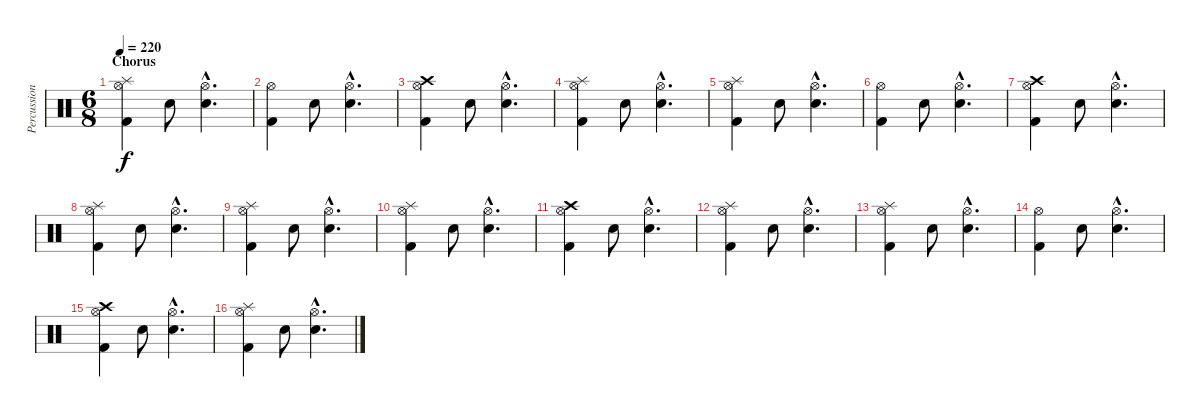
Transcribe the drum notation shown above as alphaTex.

\track ("Percussion" "Percussion") {instrument percussion}
\staff {score}
\articulation defaults
\ts (6 8)
\section ("" "Chorus")
\tempo 220
\clef neutral
\ks c
("Hi-Hat (open)" "Splash (hit)" "Kick (hit) 2").4{dy f} "Snare (hit) 2".8 ("Hi-Hat (open)"{hac} "Electric Snare (hit)"{hac}).4{d} |
("Hi-Hat (open)" "Kick (hit) 2").4 "Snare (hit) 2".8 ("Hi-Hat (open)"{hac} "Electric Snare (hit)"{hac}).4{d} |
("Hi-Hat (open)" "Crash high (hit)" "Kick (hit) 2").4 "Snare (hit) 2".8 ("Hi-Hat (open)"{hac} "Electric Snare (hit)"{hac}).4{d} |
("Hi-Hat (open)" "Splash (hit)" "Kick (hit) 2").4 "Snare (hit) 2".8 ("Hi-Hat (open)"{hac} "Electric Snare (hit)"{hac}).4{d} |
("Hi-Hat (open)" "Splash (hit)" "Kick (hit) 2").4 "Snare (hit) 2".8 ("Hi-Hat (open)"{hac} "Electric Snare (hit)"{hac}).4{d} |
("Hi-Hat (open)" "Kick (hit) 2").4 "Snare (hit) 2".8 ("Hi-Hat (open)"{hac} "Electric Snare (hit)"{hac}).4{d} |
("Hi-Hat (open)" "Crash high (hit)" "Kick (hit) 2").4 "Snare (hit) 2".8 ("Hi-Hat (open)"{hac} "Electric Snare (hit)"{hac}).4{d} |
("Hi-Hat (open)" "Splash (hit)" "Kick (hit) 2").4 "Snare (hit) 2".8 ("Hi-Hat (open)"{hac} "Electric Snare (hit)"{hac}).4{d} |
("Hi-Hat (open)" "Splash (hit)" "Kick (hit) 2").4 "Snare (hit) 2".8 ("Hi-Hat (open)"{hac} "Electric Snare (hit)"{hac}).4{d} |
("Hi-Hat (open)" "Splash (hit)" "Kick (hit) 2").4 "Snare (hit) 2".8 ("Hi-Hat (open)"{hac} "Electric Snare (hit)"{hac}).4{d} |
("Hi-Hat (open)" "Crash high (hit)" "Kick (hit) 2").4 "Snare (hit) 2".8 ("Hi-Hat (open)"{hac} "Electric Snare (hit)"{hac}).4{d} |
("Hi-Hat (open)" "Splash (hit)" "Kick (hit) 2").4 "Snare (hit) 2".8 ("Hi-Hat (open)"{hac} "Electric Snare (hit)"{hac}).4{d} |
("Hi-Hat (open)" "Splash (hit)" "Kick (hit) 2").4 "Snare (hit) 2".8 ("Hi-Hat (open)"{hac} "Electric Snare (hit)"{hac}).4{d} |
("Hi-Hat (open)" "Kick (hit) 2").4 "Snare (hit) 2".8 ("Hi-Hat (open)"{hac} "Electric Snare (hit)"{hac}).4{d} |
("Hi-Hat (open)" "Crash high (hit)" "Kick (hit) 2").4 "Snare (hit) 2".8 ("Hi-Hat (open)"{hac} "Electric Snare (hit)"{hac}).4{d} |
("Hi-Hat (open)" "Splash (hit)" "Kick (hit) 2").4 "Snare (hit) 2".8 ("Hi-Hat (open)"{hac} "Electric Snare (hit)"{hac}).4{d}
